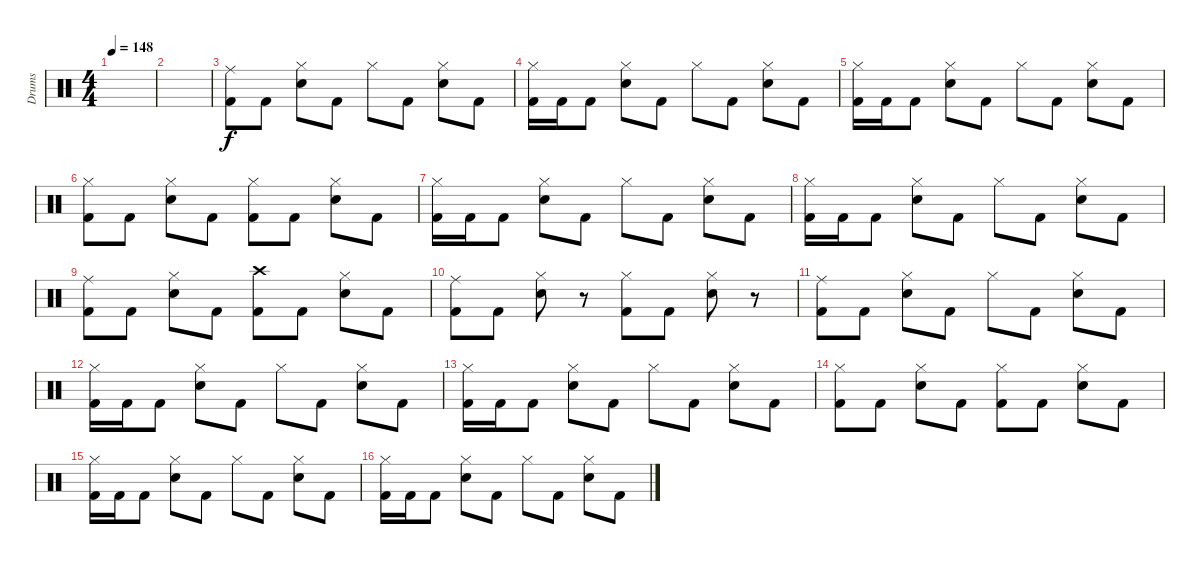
\track ("Drums" "Drums") {instrument percussion}
\staff {score}
\articulation defaults
\ts (4 4)
\tempo 148
\clef neutral
\ks c
|
|
("Ride (middle)" "Kick (hit) 2").8 "Kick (hit) 2".8 ("Hi-Hat (closed)" "Electric Snare (hit)").8 "Kick (hit) 2".8 "Hi-Hat (closed)".8 "Kick (hit) 2".8 ("Hi-Hat (closed)" "Electric Snare (hit)").8 "Kick (hit) 2".8 |
("Hi-Hat (closed)" "Kick (hit) 2").16 "Kick (hit) 2".16 "Kick (hit) 2".8 ("Hi-Hat (closed)" "Electric Snare (hit)").8 "Kick (hit) 2".8 "Hi-Hat (closed)".8 "Kick (hit) 2".8 ("Hi-Hat (closed)" "Electric Snare (hit)").8 "Kick (hit) 2".8 |
("Hi-Hat (closed)" "Kick (hit) 2").16 "Kick (hit) 2".16 "Kick (hit) 2".8 ("Hi-Hat (closed)" "Electric Snare (hit)").8 "Kick (hit) 2".8 "Hi-Hat (closed)".8 "Kick (hit) 2".8 ("Hi-Hat (closed)" "Electric Snare (hit)").8 "Kick (hit) 2".8 |
("Hi-Hat (closed)" "Kick (hit) 2").8 "Kick (hit) 2".8 ("Hi-Hat (closed)" "Electric Snare (hit)").8 "Kick (hit) 2".8 ("Hi-Hat (closed)" "Kick (hit) 2").8 "Kick (hit) 2".8 ("Hi-Hat (closed)" "Electric Snare (hit)").8 "Kick (hit) 2".8 |
("Hi-Hat (closed)" "Kick (hit) 2").16 "Kick (hit) 2".16 "Kick (hit) 2".8 ("Hi-Hat (closed)" "Electric Snare (hit)").8 "Kick (hit) 2".8 "Hi-Hat (closed)".8 "Kick (hit) 2".8 ("Hi-Hat (closed)" "Electric Snare (hit)").8 "Kick (hit) 2".8 |
("Hi-Hat (closed)" "Kick (hit) 2").16 "Kick (hit) 2".16 "Kick (hit) 2".8 ("Hi-Hat (closed)" "Electric Snare (hit)").8 "Kick (hit) 2".8 "Hi-Hat (closed)".8 "Kick (hit) 2".8 ("Hi-Hat (closed)" "Electric Snare (hit)").8 "Kick (hit) 2".8 |
("Ride (middle)" "Kick (hit) 2").8 "Kick (hit) 2".8 ("Hi-Hat (closed)" "Electric Snare (hit)").8 "Kick (hit) 2".8 ("Crash high (hit)" "Kick (hit) 2").8 "Kick (hit) 2".8 ("Hi-Hat (closed)" "Electric Snare (hit)").8 "Kick (hit) 2".8 |
("Ride (middle)" "Kick (hit) 2").8 "Kick (hit) 2".8 ("Hi-Hat (closed)" "Electric Snare (hit)").8 r.8 ("Hi-Hat (closed)" "Kick (hit) 2").8 "Kick (hit) 2".8 ("Hi-Hat (closed)" "Electric Snare (hit)").8 r.8 |
("Ride (middle)" "Kick (hit) 2").8 "Kick (hit) 2".8 ("Hi-Hat (closed)" "Electric Snare (hit)").8 "Kick (hit) 2".8 "Hi-Hat (closed)".8 "Kick (hit) 2".8 ("Hi-Hat (closed)" "Electric Snare (hit)").8 "Kick (hit) 2".8 |
("Hi-Hat (closed)" "Kick (hit) 2").16 "Kick (hit) 2".16 "Kick (hit) 2".8 ("Hi-Hat (closed)" "Electric Snare (hit)").8 "Kick (hit) 2".8 "Hi-Hat (closed)".8 "Kick (hit) 2".8 ("Hi-Hat (closed)" "Electric Snare (hit)").8 "Kick (hit) 2".8 |
("Hi-Hat (closed)" "Kick (hit) 2").16 "Kick (hit) 2".16 "Kick (hit) 2".8 ("Hi-Hat (closed)" "Electric Snare (hit)").8 "Kick (hit) 2".8 "Hi-Hat (closed)".8 "Kick (hit) 2".8 ("Hi-Hat (closed)" "Electric Snare (hit)").8 "Kick (hit) 2".8 |
("Hi-Hat (closed)" "Kick (hit) 2").8 "Kick (hit) 2".8 ("Hi-Hat (closed)" "Electric Snare (hit)").8 "Kick (hit) 2".8 ("Hi-Hat (closed)" "Kick (hit) 2").8 "Kick (hit) 2".8 ("Hi-Hat (closed)" "Electric Snare (hit)").8 "Kick (hit) 2".8 |
("Hi-Hat (closed)" "Kick (hit) 2").16 "Kick (hit) 2".16 "Kick (hit) 2".8 ("Hi-Hat (closed)" "Electric Snare (hit)").8 "Kick (hit) 2".8 "Hi-Hat (closed)".8 "Kick (hit) 2".8 ("Hi-Hat (closed)" "Electric Snare (hit)").8 "Kick (hit) 2".8 |
("Hi-Hat (closed)" "Kick (hit) 2").16 "Kick (hit) 2".16 "Kick (hit) 2".8 ("Hi-Hat (closed)" "Electric Snare (hit)").8 "Kick (hit) 2".8 "Hi-Hat (closed)".8 "Kick (hit) 2".8 ("Hi-Hat (closed)" "Electric Snare (hit)").8 "Kick (hit) 2".8
